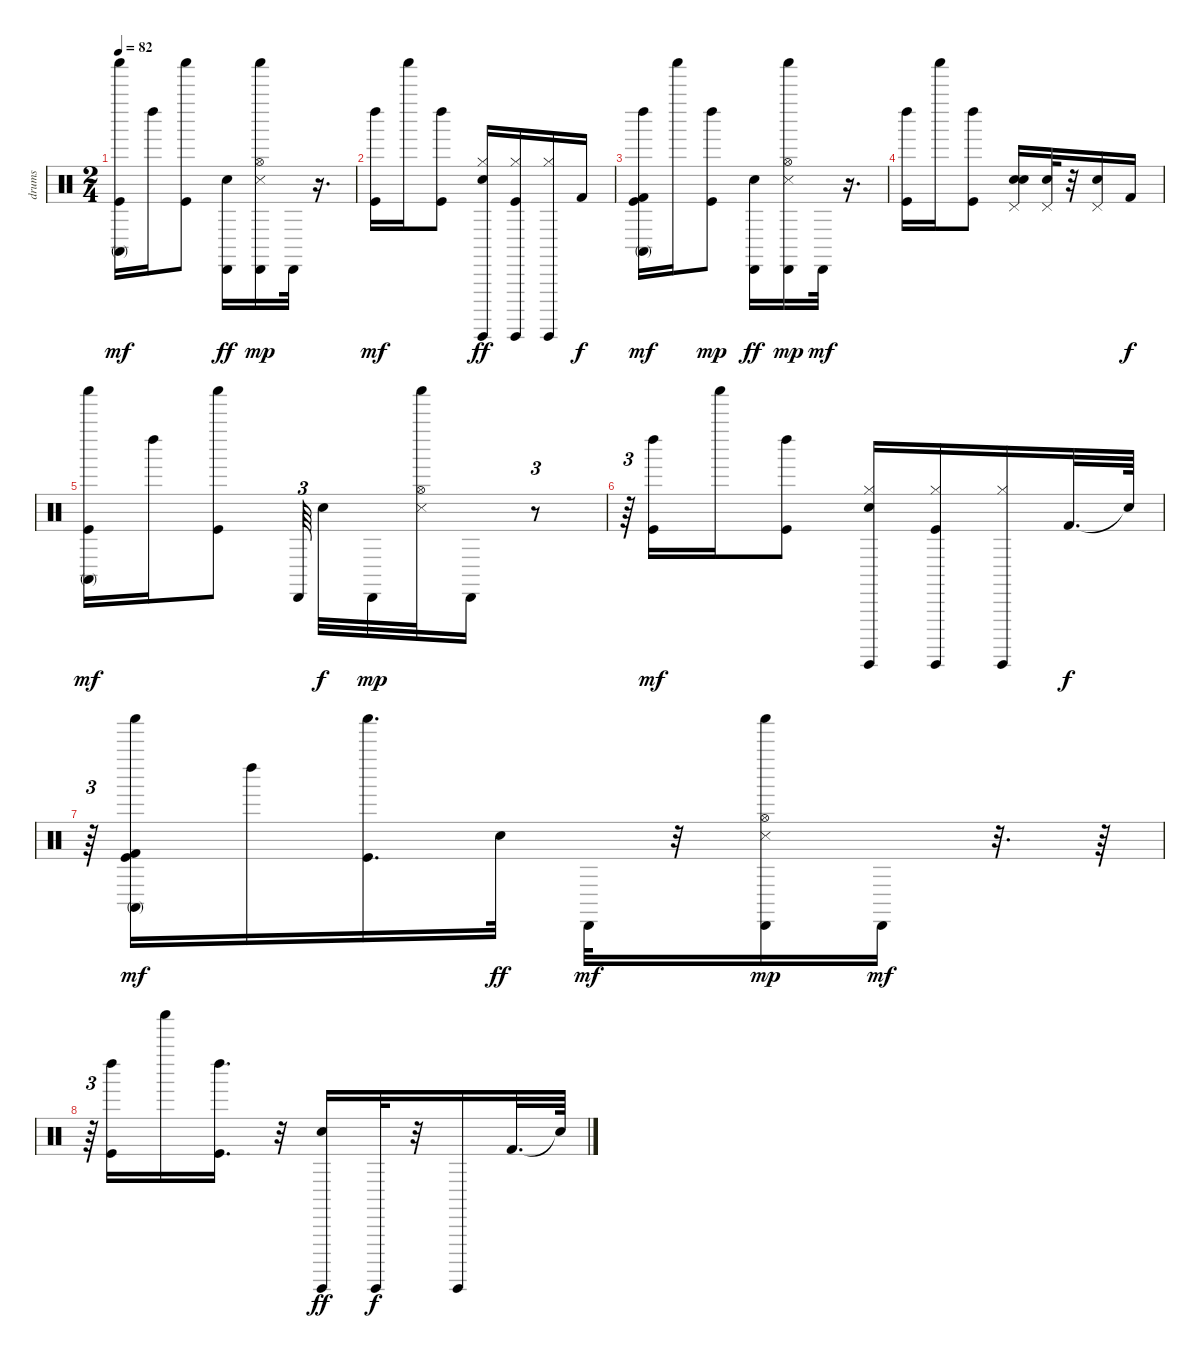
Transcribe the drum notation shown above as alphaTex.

\track ("drums" "drums") {instrument percussion}
\staff {score}
\articulation defaults
\ts (2 4)
\tempo 82
\clef neutral
\ks c
("Kick (hit)" "Shaker (hit)" "Conga high (mute)").16{dy mf} "Left Maraca (hit)".16 ("Kick (hit)" "Shaker (hit)").8 ("Cabasa (hit)" "Electric Snare (hit)").16{dy ff} ("Snare (side stick) 3" "Shaker (hit)" "Hi-Hat (open)" "Cabasa (hit)").16{dy mp} "Cabasa (hit)".32 r.16{d} |
("Kick (hit)" "Left Maraca (hit)").16{dy mf} "Shaker (hit)".16 ("Kick (hit)" "Left Maraca (hit)").8 ("Hi-Hat (closed)" "Guiro (hit)" "Electric Snare (hit)").16{dy ff} ("Kick (hit)" "Guiro (hit)" "Hi-Hat (closed)").16 ("Guiro (hit)" "Hi-Hat (closed)").16 "Kick (hit) 2".16{dy f} |
("Kick (hit)" "Kick (hit) 2" "Left Maraca (hit)" "Conga high (mute)").16{dy mf} "Shaker (hit)".16 ("Kick (hit)" "Left Maraca (hit)").8{dy mp} ("Cabasa (hit)" "Electric Snare (hit)").16{dy ff} ("Cabasa (hit)" "Snare (side stick) 3" "Shaker (hit)" "Hi-Hat (open)").16{dy mp} "Cabasa (hit)".32{dy mf} r.16{d} |
("Kick (hit)" "Left Maraca (hit)").16 "Shaker (hit)".16 ("Kick (hit)" "Left Maraca (hit)").8 ("Hand Clap (hit)" "Pedal Hi-Hat (hit)" "Electric Snare (hit)").16 ("Pedal Hi-Hat (hit)" "Hand Clap (hit)").32 r.32 ("Pedal Hi-Hat (hit)" "Hand Clap (hit)").16 "Kick (hit) 2".16{dy f} |
("Kick (hit)" "Shaker (hit)" "Conga high (mute)").16{dy mf} "Left Maraca (hit)".16 ("Kick (hit)" "Shaker (hit)").8 "Cabasa (hit)".64{tu (3 2) beam splitsecondary} "Electric Snare (hit)".32{dy f} "Cabasa (hit)".32{dy mp} ("Snare (side stick) 3" "Shaker (hit)" "Hi-Hat (open)").32 "Cabasa (hit)".16 r.8{tu (3 2)} |
r.64{tu (3 2)} ("Kick (hit)" "Left Maraca (hit)").16{dy mf} "Shaker (hit)".16 ("Kick (hit)" "Left Maraca (hit)").8 ("Electric Snare (hit)" "Hi-Hat (closed)" "Guiro (hit)").16 ("Kick (hit)" "Guiro (hit)" "Hi-Hat (closed)").16 ("Guiro (hit)" "Hi-Hat (closed)").16 "Kick (hit) 2".32{d dy f} "Snare (hit)"{t}.64 |
r.64{tu (3 2)} ("Kick (hit)" "Kick (hit) 2" "Shaker (hit)" "Conga high (mute)").16{dy mf} "Left Maraca (hit)".16 ("Kick (hit)" "Shaker (hit)").16{d} "Electric Snare (hit)".32{dy ff} "Cabasa (hit)".32{dy mf} r.32 ("Snare (side stick) 3" "Shaker (hit)" "Hi-Hat (open)" "Cabasa (hit)").16{dy mp} "Cabasa (hit)".16{dy mf} r.32{d} r.64 |
r.64{tu (3 2)} ("Kick (hit)" "Left Maraca (hit)").16 "Shaker (hit)".16 ("Kick (hit)" "Left Maraca (hit)").16{d} r.32 ("Guiro (hit)" "Electric Snare (hit)").16{dy ff} "Guiro (hit)".32{dy f} r.32 "Guiro (hit)".16 "Kick (hit) 2".32{d} "Snare (hit)"{t}.64
